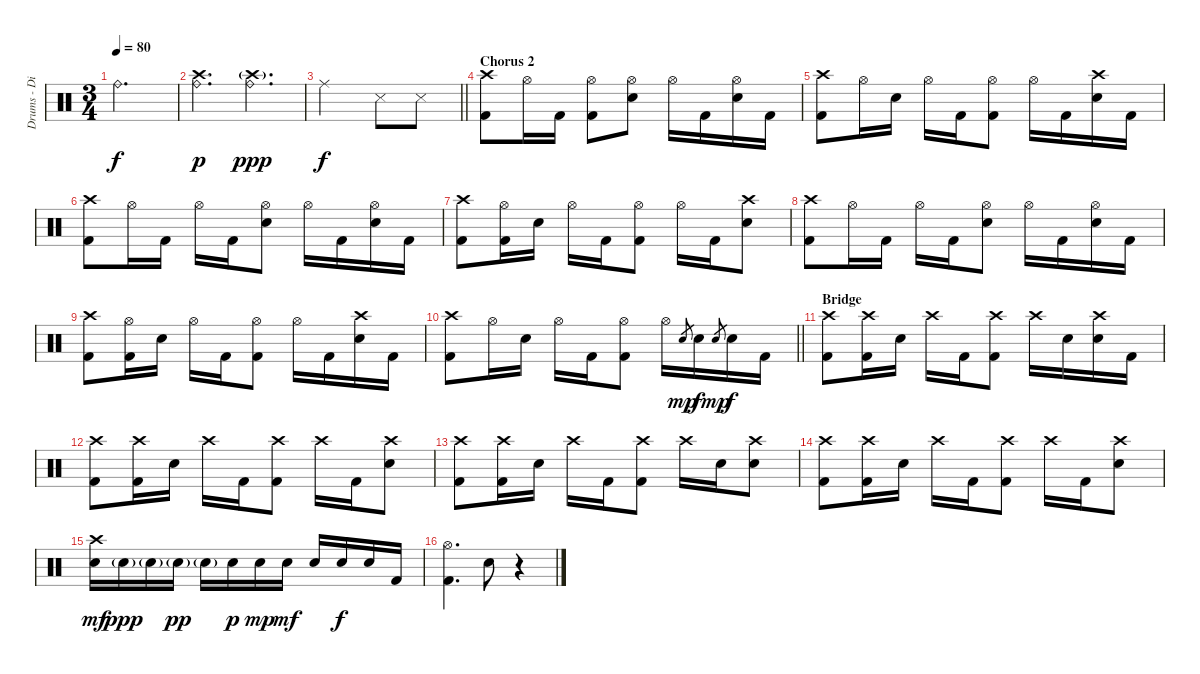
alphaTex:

\track ("Drums - Dino Campanella" "Drums - Di") {instrument percussion}
\staff {score}
\articulation defaults
\ts (3 4)
\tempo 80
\clef neutral
\ks c "Ride (bell)".2{d dy f}
|
("Crash high (hit)" "Ride (bell)").4{d dy p} ("Crash high (hit)"{g} "Ride (bell)").4{d dy ppp} |
\barLineRight lightlight "Ride (middle)".2{dy f} "Snare (side stick) 3".8 "Snare (side stick) 3".8
|
\section ("" "Chorus 2")
("Crash high (hit)" "Kick (hit) 2").8 "Hi-Hat (open)".16 "Kick (hit) 2".16 ("Hi-Hat (open)" "Kick (hit) 2").8 ("Hi-Hat (open)" "Electric Snare (hit)").8 "Hi-Hat (open)".16 "Kick (hit) 2".16 ("Hi-Hat (open)" "Electric Snare (hit)").16 "Kick (hit) 2".16 |
("Crash high (hit)" "Kick (hit) 2").8 "Hi-Hat (open)".16 "Electric Snare (hit)".16 "Hi-Hat (open)".16 "Kick (hit) 2".16 ("Hi-Hat (open)" "Kick (hit) 2").8 "Hi-Hat (open)".16 "Kick (hit) 2".16 ("Crash high (hit)" "Electric Snare (hit)").16 "Kick (hit) 2".16 |
("Crash high (hit)" "Kick (hit) 2").8 "Hi-Hat (open)".16 "Kick (hit) 2".16 "Hi-Hat (open)".16 "Kick (hit) 2".16 ("Hi-Hat (open)" "Electric Snare (hit)").8 "Hi-Hat (open)".16 "Kick (hit) 2".16 ("Hi-Hat (open)" "Electric Snare (hit)").16 "Kick (hit) 2".16 |
("Crash high (hit)" "Kick (hit) 2").8 ("Hi-Hat (open)" "Kick (hit) 2").16 "Electric Snare (hit)".16 "Hi-Hat (open)".16 "Kick (hit) 2".16 ("Hi-Hat (open)" "Kick (hit) 2").8 "Hi-Hat (open)".16 "Kick (hit) 2".16 ("Crash high (hit)" "Electric Snare (hit)").8 |
("Crash high (hit)" "Kick (hit) 2").8 "Hi-Hat (open)".16 "Kick (hit) 2".16 "Hi-Hat (open)".16 "Kick (hit) 2".16 ("Hi-Hat (open)" "Electric Snare (hit)").8 "Hi-Hat (open)".16 "Kick (hit) 2".16 ("Hi-Hat (open)" "Electric Snare (hit)").16 "Kick (hit) 2".16 |
("Crash high (hit)" "Kick (hit) 2").8 ("Hi-Hat (open)" "Kick (hit) 2").16 "Electric Snare (hit)".16 "Hi-Hat (open)".16 "Kick (hit) 2".16 ("Hi-Hat (open)" "Kick (hit) 2").8 "Hi-Hat (open)".16 "Kick (hit) 2".16 ("Crash high (hit)" "Electric Snare (hit)").16 "Kick (hit) 2".16 |
\barLineRight lightlight
("Crash high (hit)" "Kick (hit) 2").8 "Hi-Hat (open)".16 "Electric Snare (hit)".16 "Hi-Hat (open)".16 "Kick (hit) 2".16 ("Hi-Hat (open)" "Kick (hit) 2").8 "Hi-Hat (open)".16 "Electric Snare (hit)".8{gr dy mp} "Electric Snare (hit)".16{dy f} "Electric Snare (hit)".8{gr dy mp} "Electric Snare (hit)".16{dy f} "Kick (hit) 2".16 |
\section ("" "Bridge")
("Crash high (hit)" "Kick (hit) 2").8 ("Crash high (hit)" "Kick (hit) 2").16 "Electric Snare (hit)".16 "Crash high (hit)".16 "Kick (hit) 2".16 ("Crash high (hit)" "Kick (hit) 2").8 "Crash high (hit)".16 "Electric Snare (hit)".16 ("Crash high (hit)" "Electric Snare (hit)").16 "Kick (hit) 2".16 |
("Crash high (hit)" "Kick (hit) 2").8 ("Crash high (hit)" "Kick (hit) 2").16 "Electric Snare (hit)".16 "Crash high (hit)".16 "Kick (hit) 2".16 ("Crash high (hit)" "Kick (hit) 2").8 "Crash high (hit)".16 "Kick (hit) 2".16 ("Crash high (hit)" "Electric Snare (hit)").8 |
("Crash high (hit)" "Kick (hit) 2").8 ("Crash high (hit)" "Kick (hit) 2").16 "Electric Snare (hit)".16 "Crash high (hit)".16 "Kick (hit) 2".16 ("Crash high (hit)" "Kick (hit) 2").8 "Crash high (hit)".16 "Electric Snare (hit)".16 ("Crash high (hit)" "Electric Snare (hit)").8 |
("Crash high (hit)" "Kick (hit) 2").8 ("Crash high (hit)" "Kick (hit) 2").16 "Electric Snare (hit)".16 "Crash high (hit)".16 "Kick (hit) 2".16 ("Crash high (hit)" "Kick (hit) 2").8 "Crash high (hit)".16 "Kick (hit) 2".16 ("Crash high (hit)" "Electric Snare (hit)").8 |
("Crash high (hit)" "Electric Snare (hit)").16{dy mf} "Electric Snare (hit)"{g}.16{dy ppp} "Electric Snare (hit)"{g}.16 "Electric Snare (hit)"{g}.16{dy pp} "Electric Snare (hit)"{g}.16 "Electric Snare (hit)".16{dy p} "Electric Snare (hit)".16{dy mp} "Electric Snare (hit)".16{dy mf} "Electric Snare (hit)".16 "Electric Snare (hit)".16{dy f} "Electric Snare (hit)".16 "Kick (hit) 2".16 |
("Hi-Hat (open)" "Kick (hit) 2").4{d} "Electric Snare (hit)".8 r.4
